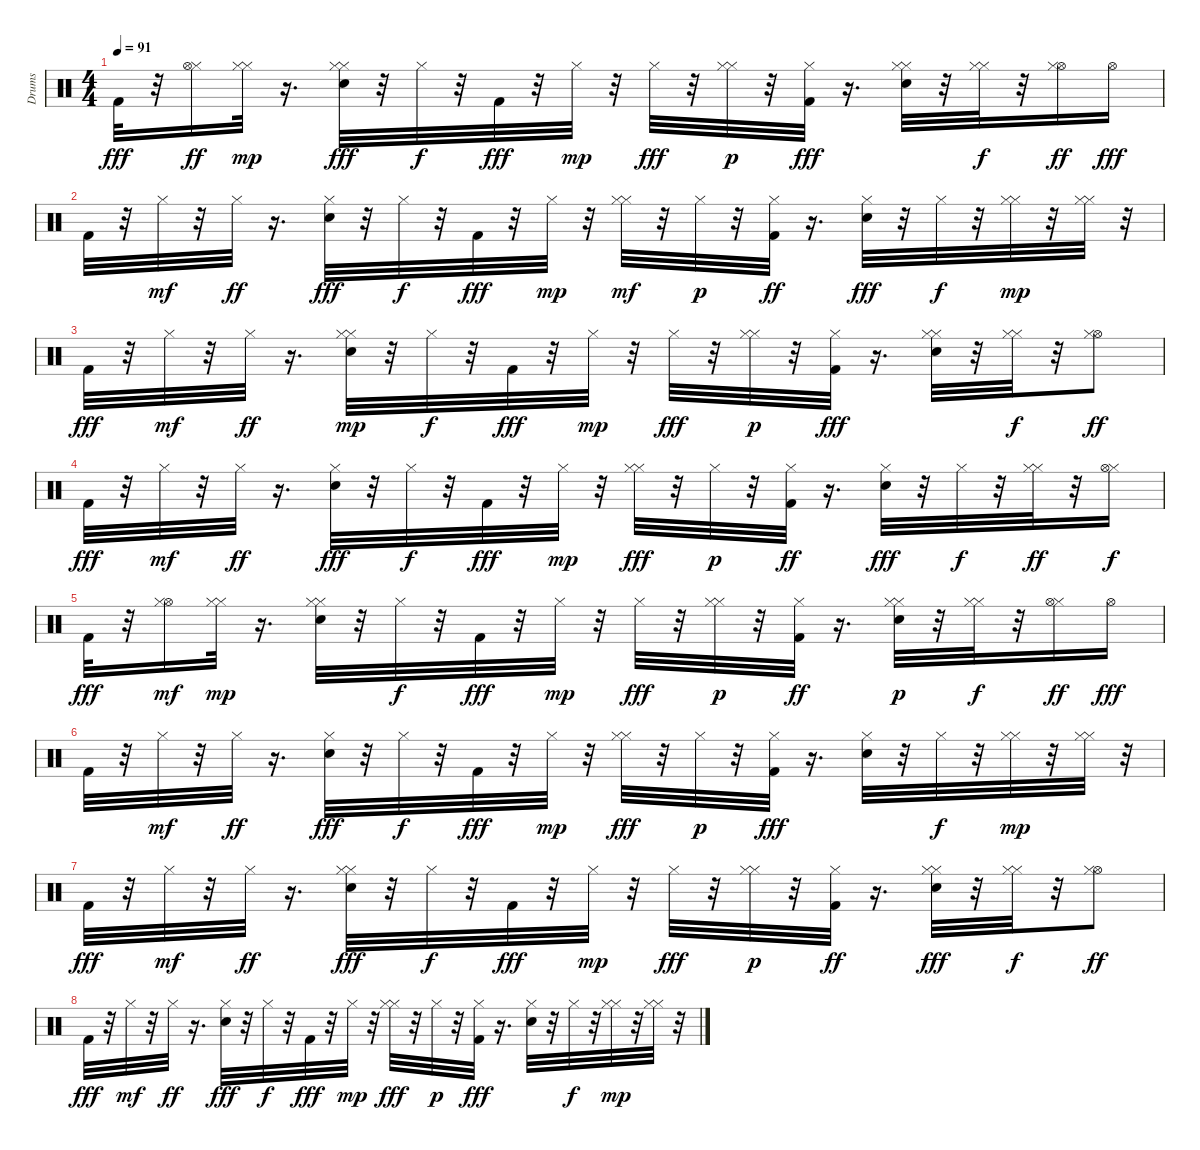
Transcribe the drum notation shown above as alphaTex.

\track ("Drums" "Drums") {instrument percussion}
\staff {score}
\articulation defaults
\ts (4 4)
\tempo 91
\clef neutral
\ks c "Kick (hit) 2".32{dy fff}
r.32 ("Hi-Hat (closed)" "Hi-Hat (open)").16{dy ff} ("Hi-Hat (closed)" "Hi-Hat (closed)").32{dy mp} r.16{d} ("Hi-Hat (closed)" "Hi-Hat (closed)" "Snare (hit) 2").32{dy fff} r.32 "Hi-Hat (closed)".32{dy f} r.32 "Kick (hit) 2".32{dy fff} r.32 "Hi-Hat (closed)".32{dy mp} r.32 "Hi-Hat (closed)".32{dy fff} r.32 ("Hi-Hat (closed)" "Hi-Hat (closed)").32{dy p} r.32 ("Hi-Hat (closed)" "Kick (hit) 2").32{dy fff} r.16{d} ("Hi-Hat (closed)" "Snare (hit) 2" "Hi-Hat (closed)").32 r.32 ("Hi-Hat (closed)" "Hi-Hat (closed)").32{dy f} r.32 ("Hi-Hat (open)" "Hi-Hat (closed)").16{dy ff} "Hi-Hat (open)".16{dy fff} |
"Kick (hit) 2".32 r.32 "Hi-Hat (closed)".32{dy mf} r.32 "Hi-Hat (closed)".32{dy ff} r.16{d} ("Snare (hit) 2" "Hi-Hat (closed)").32{dy fff} r.32 "Hi-Hat (closed)".32{dy f} r.32 "Kick (hit) 2".32{dy fff} r.32 "Hi-Hat (closed)".32{dy mp} r.32 ("Hi-Hat (closed)" "Hi-Hat (closed)").32{dy mf} r.32 "Hi-Hat (closed)".32{dy p} r.32 ("Kick (hit) 2" "Hi-Hat (closed)").32{dy ff} r.16{d} ("Snare (hit) 2" "Hi-Hat (closed)").32{dy fff} r.32 "Hi-Hat (closed)".32{dy f} r.32 ("Hi-Hat (closed)" "Hi-Hat (closed)").32{dy mp} r.32 ("Hi-Hat (closed)" "Hi-Hat (closed)").32 r.32 |
"Kick (hit) 2".32{dy fff} r.32 "Hi-Hat (closed)".32{dy mf} r.32 "Hi-Hat (closed)".32{dy ff} r.16{d} ("Hi-Hat (closed)" "Snare (hit) 2" "Hi-Hat (closed)").32{dy mp} r.32 "Hi-Hat (closed)".32{dy f} r.32 "Kick (hit) 2".32{dy fff} r.32 "Hi-Hat (closed)".32{dy mp} r.32 "Hi-Hat (closed)".32{dy fff} r.32 ("Hi-Hat (closed)" "Hi-Hat (closed)").32{dy p} r.32 ("Hi-Hat (closed)" "Kick (hit) 2").32{dy fff} r.16{d} ("Hi-Hat (closed)" "Hi-Hat (closed)" "Snare (hit) 2").32 r.32 ("Hi-Hat (closed)" "Hi-Hat (closed)").32{dy f} r.32 ("Hi-Hat (open)" "Hi-Hat (closed)").8{dy ff} |
"Kick (hit) 2".32{dy fff} r.32 "Hi-Hat (closed)".32{dy mf} r.32 "Hi-Hat (closed)".32{dy ff} r.16{d} ("Snare (hit) 2" "Hi-Hat (closed)").32{dy fff} r.32 "Hi-Hat (closed)".32{dy f} r.32 "Kick (hit) 2".32{dy fff} r.32 "Hi-Hat (closed)".32{dy mp} r.32 ("Hi-Hat (closed)" "Hi-Hat (closed)").32{dy fff} r.32 "Hi-Hat (closed)".32{dy p} r.32 ("Kick (hit) 2" "Hi-Hat (closed)").32{dy ff} r.16{d} ("Hi-Hat (closed)" "Snare (hit) 2").32{dy fff} r.32 "Hi-Hat (closed)".32{dy f} r.32 ("Hi-Hat (closed)" "Hi-Hat (closed)").32{dy ff} r.32 ("Hi-Hat (closed)" "Hi-Hat (open)").16{dy f} |
"Kick (hit) 2".32{dy fff} r.32 ("Hi-Hat (open)" "Hi-Hat (closed)").16{dy mf} ("Hi-Hat (closed)" "Hi-Hat (closed)").32{dy mp} r.16{d} ("Hi-Hat (closed)" "Snare (hit) 2" "Hi-Hat (closed)").32 r.32 "Hi-Hat (closed)".32{dy f} r.32 "Kick (hit) 2".32{dy fff} r.32 "Hi-Hat (closed)".32{dy mp} r.32 "Hi-Hat (closed)".32{dy fff} r.32 ("Hi-Hat (closed)" "Hi-Hat (closed)").32{dy p} r.32 ("Kick (hit) 2" "Hi-Hat (closed)").32{dy ff} r.16{d} ("Snare (hit) 2" "Hi-Hat (closed)" "Hi-Hat (closed)").32{dy p} r.32 ("Hi-Hat (closed)" "Hi-Hat (closed)").32{dy f} r.32 ("Hi-Hat (closed)" "Hi-Hat (open)").16{dy ff} "Hi-Hat (open)".16{dy fff} |
"Kick (hit) 2".32 r.32 "Hi-Hat (closed)".32{dy mf} r.32 "Hi-Hat (closed)".32{dy ff} r.16{d} ("Hi-Hat (closed)" "Snare (hit) 2").32{dy fff} r.32 "Hi-Hat (closed)".32{dy f} r.32 "Kick (hit) 2".32{dy fff} r.32 "Hi-Hat (closed)".32{dy mp} r.32 ("Hi-Hat (closed)" "Hi-Hat (closed)").32{dy fff} r.32 "Hi-Hat (closed)".32{dy p} r.32 ("Hi-Hat (closed)" "Kick (hit) 2").32{dy fff} r.16{d} ("Hi-Hat (closed)" "Snare (hit) 2").32 r.32 "Hi-Hat (closed)".32{dy f} r.32 ("Hi-Hat (closed)" "Hi-Hat (closed)").32{dy mp} r.32 ("Hi-Hat (closed)" "Hi-Hat (closed)").32 r.32 |
"Kick (hit) 2".32{dy fff} r.32 "Hi-Hat (closed)".32{dy mf} r.32 "Hi-Hat (closed)".32{dy ff} r.16{d} ("Hi-Hat (closed)" "Hi-Hat (closed)" "Snare (hit) 2").32{dy fff} r.32 "Hi-Hat (closed)".32{dy f} r.32 "Kick (hit) 2".32{dy fff} r.32 "Hi-Hat (closed)".32{dy mp} r.32 "Hi-Hat (closed)".32{dy fff} r.32 ("Hi-Hat (closed)" "Hi-Hat (closed)").32{dy p} r.32 ("Kick (hit) 2" "Hi-Hat (closed)").32{dy ff} r.16{d} ("Snare (hit) 2" "Hi-Hat (closed)" "Hi-Hat (closed)").32{dy fff} r.32 ("Hi-Hat (closed)" "Hi-Hat (closed)").32{dy f} r.32 ("Hi-Hat (open)" "Hi-Hat (closed)").8{dy ff} |
"Kick (hit) 2".32{dy fff} r.32 "Hi-Hat (closed)".32{dy mf} r.32 "Hi-Hat (closed)".32{dy ff} r.16{d} ("Hi-Hat (closed)" "Snare (hit) 2").32{dy fff} r.32 "Hi-Hat (closed)".32{dy f} r.32 "Kick (hit) 2".32{dy fff} r.32 "Hi-Hat (closed)".32{dy mp} r.32 ("Hi-Hat (closed)" "Hi-Hat (closed)").32{dy fff} r.32 "Hi-Hat (closed)".32{dy p} r.32 ("Hi-Hat (closed)" "Kick (hit) 2").32{dy fff} r.16{d} ("Snare (hit) 2" "Hi-Hat (closed)").32 r.32 "Hi-Hat (closed)".32{dy f} r.32 ("Hi-Hat (closed)" "Hi-Hat (closed)").32{dy mp} r.32 ("Hi-Hat (closed)" "Hi-Hat (closed)").32 r.32
